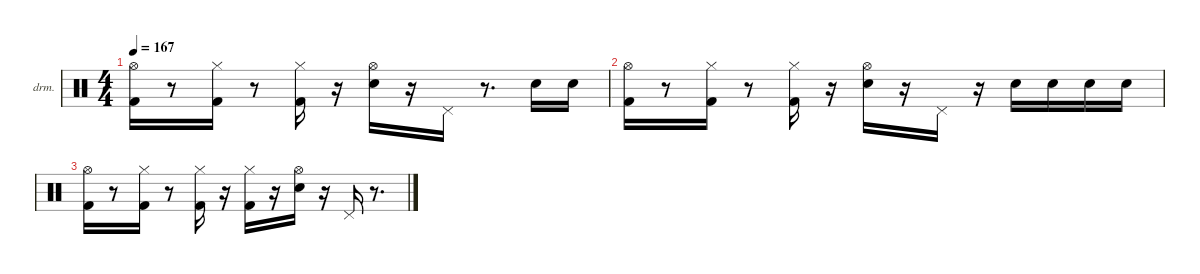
\hideDynamics
\bracketExtendMode nobrackets
\firstSystemTrackNameOrientation horizontal
\otherSystemsTrackNameOrientation horizontal
\track ("Drums" "drm.") {instrument percussion}
\staff {score}
\articulation defaults
\ts (4 4)
\tempo 167
\clef neutral
\ks aminor
("Kick (hit) 2" "Hi-Hat (open)"{acc #}).16{dy fff beam Down} r.8{beam Down} ("Kick (hit) 2" "Hi-Hat (closed)"{acc #}).16{dy ff beam Down} r.8{beam Down} ("Kick (hit) 2" "Hi-Hat (closed)"{acc #}).16{beam Down} r.16{beam Down} ("Snare (hit) 2" "Hi-Hat (open)"{acc #}).16{beam Down} r.16{beam Down} "Pedal Hi-Hat (hit)"{acc #}.16{beam Up} r.8{d beam Up} "Snare (hit) 2".16{dy mf beam Down} "Snare (hit) 2".16{dy p beam Down} |
("Hi-Hat (open)"{acc #} "Kick (hit) 2").16{dy fff beam Down} r.8{beam Down} ("Kick (hit) 2" "Hi-Hat (closed)"{acc #}).16{dy ff beam Down} r.8{beam Down} ("Kick (hit) 2" "Hi-Hat (closed)"{acc #}).16{beam Down} r.16{beam Down} ("Snare (hit) 2" "Hi-Hat (open)"{acc #}).16{dy fff beam Down} r.16{beam Down} "Pedal Hi-Hat (hit)"{acc #}.16{dy ff beam Up} r.16{beam Up} "Snare (hit) 2".16{dy f beam Down} "Snare (hit) 2".16{dy mf beam Down} "Snare (hit) 2".16{dy fff beam Down} "Snare (hit) 2".16{beam Down} |
("Kick (hit) 2" "Hi-Hat (open)"{acc #}).16{beam Down} r.8{beam Down} ("Kick (hit) 2" "Hi-Hat (closed)"{acc #}).16{dy ff beam Down} r.8{beam Down} ("Kick (hit) 2" "Hi-Hat (closed)"{acc #}).16{dy mf beam Down} r.16{beam Down} ("Kick (hit) 2" "Hi-Hat (closed)"{acc #}).16{dy fff beam Down} r.16{beam Down} ("Snare (hit) 2" "Hi-Hat (open)"{acc #}).16{dy ff beam Down} r.16{beam Down} "Pedal Hi-Hat (hit)"{acc #}.16{dy fff beam Up} r.8{d beam Up}
